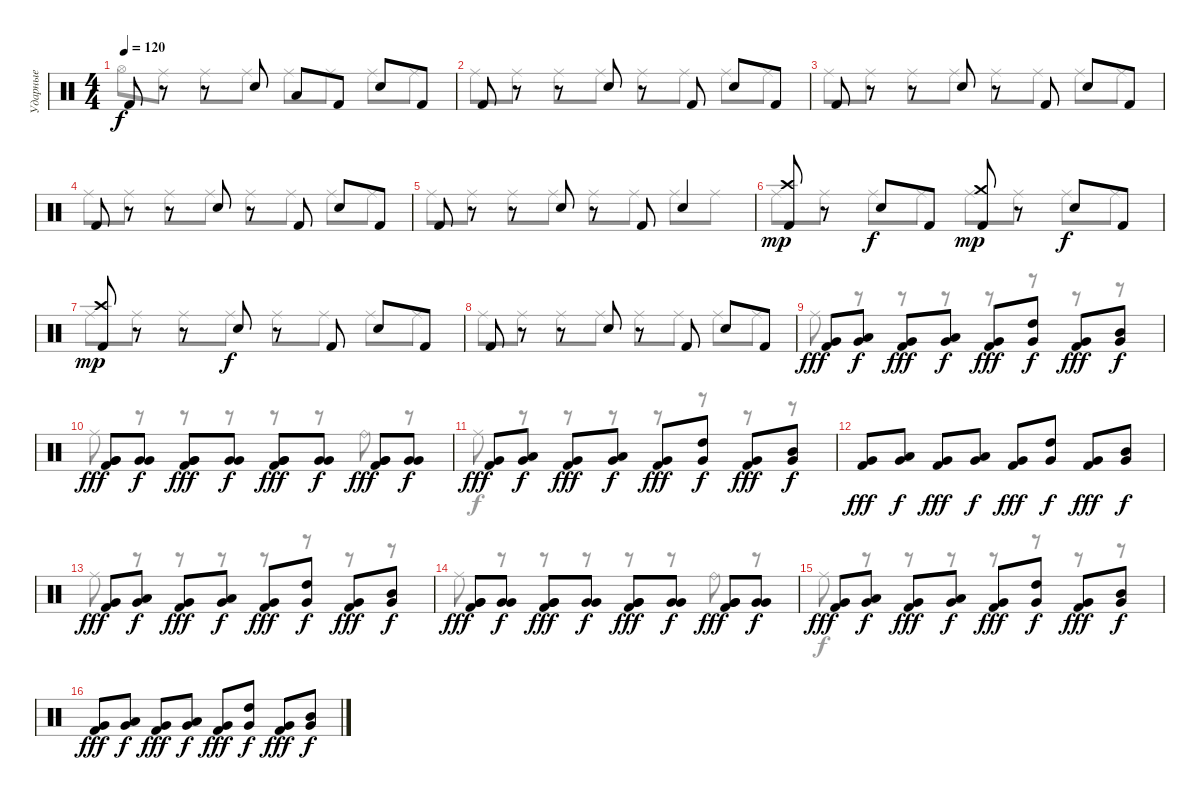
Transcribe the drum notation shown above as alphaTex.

\track ("Ударные" "Ударные") {instrument percussion}
\staff {score}
\articulation defaults
\voice
\ts (4 4)
\tempo 120
\clef neutral
\ks c "Kick (hit) 2".8{dy f}
r.8 r.8 "Snare (hit) 2".8 "Low Tom (hit)".8 "Kick (hit) 2".8 "Snare (hit) 2".8 "Kick (hit) 2".8 |
"Kick (hit) 2".8 r.8 r.8 "Snare (hit) 2".8 r.8 "Kick (hit) 2".8 "Snare (hit) 2".8 "Kick (hit) 2".8 |
"Kick (hit) 2".8 r.8 r.8 "Snare (hit) 2".8 r.8 "Kick (hit) 2".8 "Snare (hit) 2".8 "Kick (hit) 2".8 |
"Kick (hit) 2".8 r.8 r.8 "Snare (hit) 2".8 r.8 "Kick (hit) 2".8 "Snare (hit) 2".8 "Kick (hit) 2".8 |
"Kick (hit) 2".8 r.8 r.8 "Snare (hit) 2".8 r.8 "Kick (hit) 2".8 "Snare (hit) 2".4 |
("Crash high (hit)" "Kick (hit) 2").8{dy mp} r.8 "Snare (hit) 2".8{dy f} "Kick (hit) 2".8 ("Crash medium (hit)" "Kick (hit) 2").8{dy mp} r.8 "Snare (hit) 2".8{dy f} "Kick (hit) 2".8 |
("Crash high (hit)" "Kick (hit) 2").8{dy mp} r.8 r.8 "Snare (hit) 2".8{dy f} r.8 "Kick (hit) 2".8 "Snare (hit) 2".8 "Kick (hit) 2".8 |
"Kick (hit) 2".8 r.8 r.8 "Snare (hit) 2".8 r.8 "Kick (hit) 2".8 "Snare (hit) 2".8 "Kick (hit) 2".8 |
("Very Low Tom (hit)" "Kick (hit) 2").8{dy fff} ("Low Tom (hit)" "Very Low Tom (hit)").8{dy f} ("Very Low Tom (hit)" "Kick (hit) 2").8{dy fff} ("Low Floor Tom (hit)" "Very Low Tom (hit)").8{dy f} ("Very Low Tom (hit)" "Kick (hit) 2").8{dy fff} ("High Tom (hit)" "Very Low Tom (hit)").8{dy f} ("Very Low Tom (hit)" "Kick (hit) 2").8{dy fff} ("Mid Tom (hit)" "Very Low Tom (hit)").8{dy f} |
("Very Low Tom (hit)" "Very Low Tom (hit)" "Kick (hit) 2").8{dy fff} ("Very Low Tom (hit)" "Very Low Tom (hit)").8{dy f} ("Very Low Tom (hit)" "Very Low Tom (hit)" "Kick (hit) 2").8{dy fff} ("Very Low Tom (hit)" "Very Low Tom (hit)").8{dy f} ("Very Low Tom (hit)" "Very Low Tom (hit)" "Kick (hit) 2").8{dy fff} ("Very Low Tom (hit)" "Very Low Tom (hit)").8{dy f} ("Very Low Tom (hit)" "Very Low Tom (hit)" "Kick (hit) 2").8{dy fff} ("Very Low Tom (hit)" "Very Low Tom (hit)").8{dy f} |
("Very Low Tom (hit)" "Kick (hit) 2").8{dy fff} ("Low Tom (hit)" "Very Low Tom (hit)").8{dy f} ("Very Low Tom (hit)" "Kick (hit) 2").8{dy fff} ("Low Floor Tom (hit)" "Very Low Tom (hit)").8{dy f} ("Very Low Tom (hit)" "Kick (hit) 2").8{dy fff} ("High Tom (hit)" "Very Low Tom (hit)").8{dy f} ("Very Low Tom (hit)" "Kick (hit) 2").8{dy fff} ("Mid Tom (hit)" "Very Low Tom (hit)").8{dy f} |
("Very Low Tom (hit)" "Kick (hit) 2").8{dy fff} ("Low Tom (hit)" "Very Low Tom (hit)").8{dy f} ("Very Low Tom (hit)" "Kick (hit) 2").8{dy fff} ("Low Floor Tom (hit)" "Very Low Tom (hit)").8{dy f} ("Very Low Tom (hit)" "Kick (hit) 2").8{dy fff} ("High Tom (hit)" "Very Low Tom (hit)").8{dy f} ("Very Low Tom (hit)" "Kick (hit) 2").8{dy fff} ("Mid Tom (hit)" "Very Low Tom (hit)").8{dy f} |
("Very Low Tom (hit)" "Kick (hit) 2").8{dy fff} ("Low Tom (hit)" "Very Low Tom (hit)").8{dy f} ("Very Low Tom (hit)" "Kick (hit) 2").8{dy fff} ("Low Floor Tom (hit)" "Very Low Tom (hit)").8{dy f} ("Very Low Tom (hit)" "Kick (hit) 2").8{dy fff} ("High Tom (hit)" "Very Low Tom (hit)").8{dy f} ("Very Low Tom (hit)" "Kick (hit) 2").8{dy fff} ("Mid Tom (hit)" "Very Low Tom (hit)").8{dy f} |
("Very Low Tom (hit)" "Very Low Tom (hit)" "Kick (hit) 2").8{dy fff} ("Very Low Tom (hit)" "Very Low Tom (hit)").8{dy f} ("Very Low Tom (hit)" "Very Low Tom (hit)" "Kick (hit) 2").8{dy fff} ("Very Low Tom (hit)" "Very Low Tom (hit)").8{dy f} ("Very Low Tom (hit)" "Very Low Tom (hit)" "Kick (hit) 2").8{dy fff} ("Very Low Tom (hit)" "Very Low Tom (hit)").8{dy f} ("Very Low Tom (hit)" "Very Low Tom (hit)" "Kick (hit) 2").8{dy fff} ("Very Low Tom (hit)" "Very Low Tom (hit)").8{dy f} |
("Very Low Tom (hit)" "Kick (hit) 2").8{dy fff} ("Low Tom (hit)" "Very Low Tom (hit)").8{dy f} ("Very Low Tom (hit)" "Kick (hit) 2").8{dy fff} ("Low Floor Tom (hit)" "Very Low Tom (hit)").8{dy f} ("Very Low Tom (hit)" "Kick (hit) 2").8{dy fff} ("High Tom (hit)" "Very Low Tom (hit)").8{dy f} ("Very Low Tom (hit)" "Kick (hit) 2").8{dy fff} ("Mid Tom (hit)" "Very Low Tom (hit)").8{dy f} |
("Very Low Tom (hit)" "Kick (hit) 2").8{dy fff} ("Low Tom (hit)" "Very Low Tom (hit)").8{dy f} ("Very Low Tom (hit)" "Kick (hit) 2").8{dy fff} ("Low Floor Tom (hit)" "Very Low Tom (hit)").8{dy f} ("Very Low Tom (hit)" "Kick (hit) 2").8{dy fff} ("High Tom (hit)" "Very Low Tom (hit)").8{dy f} ("Very Low Tom (hit)" "Kick (hit) 2").8{dy fff} ("Mid Tom (hit)" "Very Low Tom (hit)").8{dy f}
\voice
\clef neutral
\ottava regular
\simile none
\ks c "Hi-Hat (open)".8{dy f} "Ride (middle)".8 "Ride (middle)".8 "Ride (middle)".8 "Ride (middle)".8 "Ride (middle)".8 "Ride (middle)".8 "Ride (middle)".8
|
"Ride (middle)".8 "Ride (middle)".8 "Ride (middle)".8 "Ride (middle)".8 "Ride (middle)".8 "Ride (middle)".8 "Ride (middle)".8 "Ride (middle)".8 |
"Ride (middle)".8 "Ride (middle)".8 "Ride (middle)".8 "Ride (middle)".8 "Ride (middle)".8 "Ride (middle)".8 "Ride (middle)".8 "Ride (middle)".8 |
"Ride (middle)".8 "Ride (middle)".8 "Ride (middle)".8 "Ride (middle)".8 "Ride (middle)".8 "Ride (middle)".8 "Ride (middle)".8 "Ride (middle)".8 |
"Ride (middle)".8 "Ride (middle)".8 "Ride (middle)".8 "Ride (middle)".8 "Ride (middle)".8 "Ride (middle)".8 "Ride (middle)".8 "Ride (middle)".8 |
"Ride (middle)".8 "Ride (middle)".8 "Ride (middle)".8 "Ride (middle)".8 "Ride (middle)".8 "Ride (middle)".8 "Ride (middle)".8 "Ride (middle)".8 |
"Ride (middle)".8 "Ride (middle)".8 "Ride (middle)".8 "Ride (middle)".8 "Ride (middle)".8 "Ride (middle)".8 "Ride (middle)".8 "Ride (middle)".8 |
"Ride (middle)".8 "Ride (middle)".8 "Ride (middle)".8 "Ride (middle)".8 "Ride (middle)".8 "Ride (middle)".8 "Ride (middle)".8 "Ride (middle)".8 |
"Ride (middle)".8 r.8 r.8 r.8 r.8 r.8 r.8 r.8 |
"Ride (middle)".8 r.8 r.8 r.8 r.8 r.8 "Ride (bell)".8{dy fff} r.8 |
"Ride (middle)".8{dy f} r.8 r.8 r.8 r.8 r.8 r.8 r.8 |
|
"Ride (middle)".8 r.8 r.8 r.8 r.8 r.8 r.8 r.8 |
"Ride (middle)".8 r.8 r.8 r.8 r.8 r.8 "Ride (bell)".8{dy fff} r.8 |
"Ride (middle)".8{dy f} r.8 r.8 r.8 r.8 r.8 r.8 r.8 |
